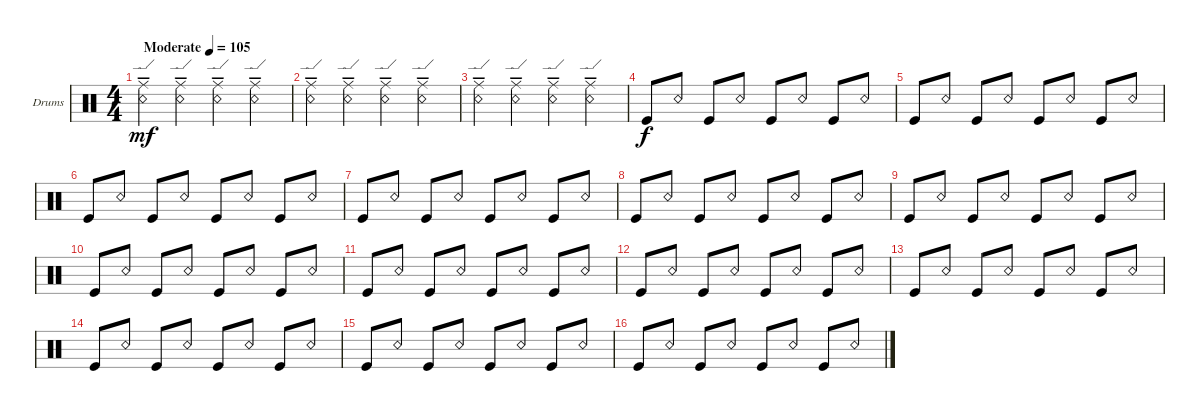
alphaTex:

\bracketExtendMode groupsimilarinstruments
\firstSystemTrackNameOrientation horizontal
\otherSystemsTrackNameOrientation horizontal
\track ("Drumkit" "Drums") {instrument percussion}
\staff {score}
\articulation defaults
\ts (4 4)
\beaming (8 2 2 2 2)
\tempo (105 "Moderate")
\clef neutral
\ks c
("Ride (edge)"{ten} "Snare (rim shot)").4{dy mf} ("Ride (edge)"{ten} "Snare (rim shot)").4 ("Ride (edge)"{ten} "Snare (rim shot)").4 ("Ride (edge)"{ten} "Snare (rim shot)").4 |
("Ride (edge)"{ten} "Snare (rim shot)").4 ("Ride (edge)"{ten} "Snare (rim shot)").4 ("Ride (edge)"{ten} "Snare (rim shot)").4 ("Ride (edge)"{ten} "Snare (rim shot)").4 |
("Ride (edge)"{ten} "Snare (rim shot)").4 ("Ride (edge)"{ten} "Snare (rim shot)").4 ("Ride (edge)"{ten} "Snare (rim shot)").4 ("Ride (edge)"{ten} "Snare (rim shot)").4 |
"Kick (hit)".8{dy f} "Snare (rim shot)".8 "Kick (hit)".8 "Snare (rim shot)".8 "Kick (hit)".8 "Snare (rim shot)".8 "Kick (hit)".8 "Snare (rim shot)".8 |
"Kick (hit)".8 "Snare (rim shot)".8 "Kick (hit)".8 "Snare (rim shot)".8 "Kick (hit)".8 "Snare (rim shot)".8 "Kick (hit)".8 "Snare (rim shot)".8 |
"Kick (hit)".8 "Snare (rim shot)".8 "Kick (hit)".8 "Snare (rim shot)".8 "Kick (hit)".8 "Snare (rim shot)".8 "Kick (hit)".8 "Snare (rim shot)".8 |
"Kick (hit)".8 "Snare (rim shot)".8 "Kick (hit)".8 "Snare (rim shot)".8 "Kick (hit)".8 "Snare (rim shot)".8 "Kick (hit)".8 "Snare (rim shot)".8 |
"Kick (hit)".8 "Snare (rim shot)".8 "Kick (hit)".8 "Snare (rim shot)".8 "Kick (hit)".8 "Snare (rim shot)".8 "Kick (hit)".8 "Snare (rim shot)".8 |
"Kick (hit)".8 "Snare (rim shot)".8 "Kick (hit)".8 "Snare (rim shot)".8 "Kick (hit)".8 "Snare (rim shot)".8 "Kick (hit)".8 "Snare (rim shot)".8 |
"Kick (hit)".8 "Snare (rim shot)".8 "Kick (hit)".8 "Snare (rim shot)".8 "Kick (hit)".8 "Snare (rim shot)".8 "Kick (hit)".8 "Snare (rim shot)".8 |
"Kick (hit)".8 "Snare (rim shot)".8 "Kick (hit)".8 "Snare (rim shot)".8 "Kick (hit)".8 "Snare (rim shot)".8 "Kick (hit)".8 "Snare (rim shot)".8 |
"Kick (hit)".8 "Snare (rim shot)".8 "Kick (hit)".8 "Snare (rim shot)".8 "Kick (hit)".8 "Snare (rim shot)".8 "Kick (hit)".8 "Snare (rim shot)".8 |
"Kick (hit)".8 "Snare (rim shot)".8 "Kick (hit)".8 "Snare (rim shot)".8 "Kick (hit)".8 "Snare (rim shot)".8 "Kick (hit)".8 "Snare (rim shot)".8 |
"Kick (hit)".8 "Snare (rim shot)".8 "Kick (hit)".8 "Snare (rim shot)".8 "Kick (hit)".8 "Snare (rim shot)".8 "Kick (hit)".8 "Snare (rim shot)".8 |
"Kick (hit)".8 "Snare (rim shot)".8 "Kick (hit)".8 "Snare (rim shot)".8 "Kick (hit)".8 "Snare (rim shot)".8 "Kick (hit)".8 "Snare (rim shot)".8 |
"Kick (hit)".8 "Snare (rim shot)".8 "Kick (hit)".8 "Snare (rim shot)".8 "Kick (hit)".8 "Snare (rim shot)".8 "Kick (hit)".8 "Snare (rim shot)".8
